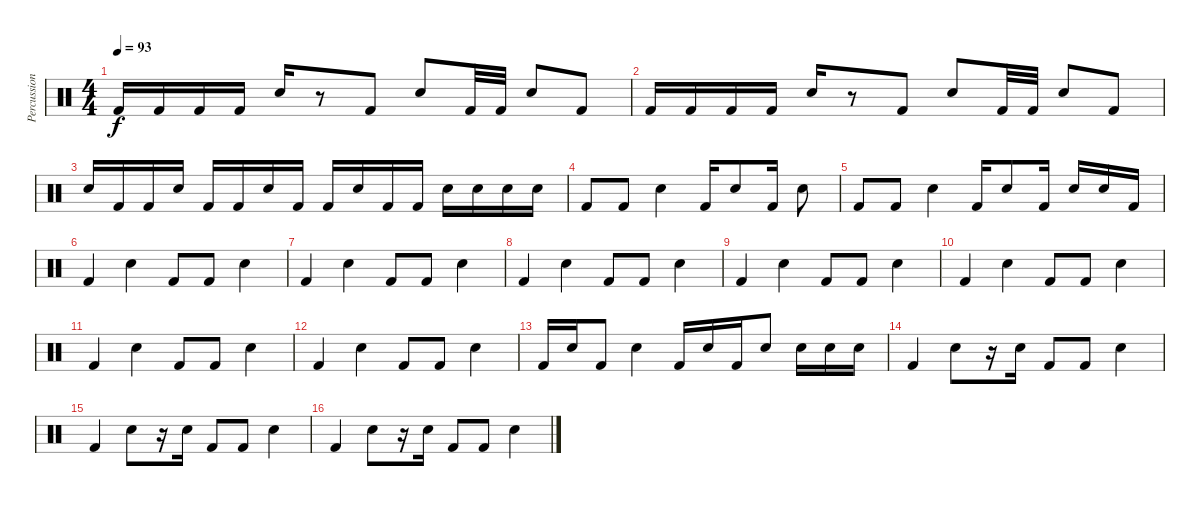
\track ("Percussion" "Percussion") {instrument percussion}
\staff {score}
\articulation defaults
\ts (4 4)
\tempo 93
\clef neutral
\ks c "Kick (hit) 2".16{dy f} "Kick (hit) 2".16 "Kick (hit) 2".16 "Kick (hit) 2".16 "Snare (hit) 2".16
r.8 "Kick (hit) 2".8 "Snare (hit) 2".8 "Kick (hit) 2".32 "Kick (hit) 2".32 "Snare (hit) 2".8 "Kick (hit) 2".8 |
"Kick (hit) 2".16 "Kick (hit) 2".16 "Kick (hit) 2".16 "Kick (hit) 2".16 "Snare (hit) 2".16 r.8 "Kick (hit) 2".8 "Snare (hit) 2".8 "Kick (hit) 2".32 "Kick (hit) 2".32 "Snare (hit) 2".8 "Kick (hit) 2".8 |
"Snare (hit) 2".16 "Kick (hit) 2".16 "Kick (hit) 2".16 "Snare (hit) 2".16 "Kick (hit) 2".16 "Kick (hit) 2".16 "Snare (hit) 2".16 "Kick (hit) 2".16 "Kick (hit) 2".16 "Snare (hit) 2".16 "Kick (hit) 2".16 "Kick (hit) 2".16 "Snare (hit) 2".16 "Snare (hit) 2".16 "Snare (hit) 2".16 "Snare (hit) 2".16 |
"Kick (hit) 2".8 "Kick (hit) 2".8 "Snare (hit) 2".4 "Kick (hit) 2".16 "Snare (hit) 2".8 "Kick (hit) 2".16 "Snare (hit) 2".8 |
"Kick (hit) 2".8 "Kick (hit) 2".8 "Snare (hit) 2".4 "Kick (hit) 2".16 "Snare (hit) 2".8 "Kick (hit) 2".16 "Snare (hit) 2".16 "Snare (hit) 2".16 "Kick (hit) 2".16 |
"Kick (hit) 2".4 "Snare (hit) 2".4 "Kick (hit) 2".8 "Kick (hit) 2".8 "Snare (hit) 2".4 |
"Kick (hit) 2".4 "Snare (hit) 2".4 "Kick (hit) 2".8 "Kick (hit) 2".8 "Snare (hit) 2".4 |
"Kick (hit) 2".4 "Snare (hit) 2".4 "Kick (hit) 2".8 "Kick (hit) 2".8 "Snare (hit) 2".4 |
"Kick (hit) 2".4 "Snare (hit) 2".4 "Kick (hit) 2".8 "Kick (hit) 2".8 "Snare (hit) 2".4 |
"Kick (hit) 2".4 "Snare (hit) 2".4 "Kick (hit) 2".8 "Kick (hit) 2".8 "Snare (hit) 2".4 |
"Kick (hit) 2".4 "Snare (hit) 2".4 "Kick (hit) 2".8 "Kick (hit) 2".8 "Snare (hit) 2".4 |
"Kick (hit) 2".4 "Snare (hit) 2".4 "Kick (hit) 2".8 "Kick (hit) 2".8 "Snare (hit) 2".4 |
"Kick (hit) 2".16 "Snare (hit) 2".16 "Kick (hit) 2".8 "Snare (hit) 2".4 "Kick (hit) 2".16 "Snare (hit) 2".16 "Kick (hit) 2".16 "Snare (hit) 2".8 "Snare (hit) 2".16 "Snare (hit) 2".16 "Snare (hit) 2".16 |
"Kick (hit) 2".4 "Snare (hit) 2".8 r.16 "Snare (hit) 2".16 "Kick (hit) 2".8 "Kick (hit) 2".8 "Snare (hit) 2".4 |
"Kick (hit) 2".4 "Snare (hit) 2".8 r.16 "Snare (hit) 2".16 "Kick (hit) 2".8 "Kick (hit) 2".8 "Snare (hit) 2".4 |
"Kick (hit) 2".4 "Snare (hit) 2".8 r.16 "Snare (hit) 2".16 "Kick (hit) 2".8 "Kick (hit) 2".8 "Snare (hit) 2".4
